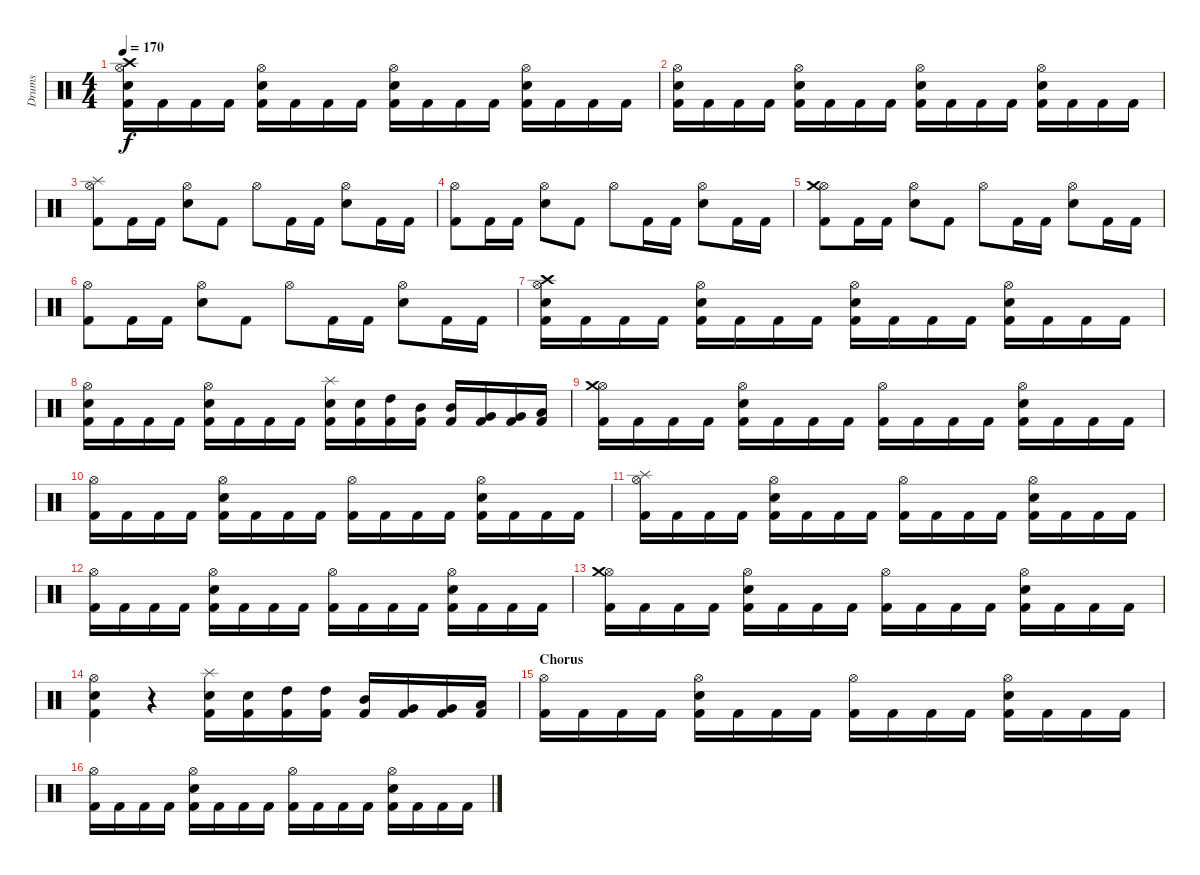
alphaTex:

\track ("Drums" "Drums") {instrument percussion}
\staff {score}
\articulation defaults
\ts (4 4)
\tempo 170
\clef neutral
\ks c
("Kick (hit) 2" "Snare (hit) 2" "Hi-Hat (open)" "Crash high (hit)").16{dy f} "Kick (hit) 2".16 "Kick (hit) 2".16 "Kick (hit) 2".16 ("Kick (hit) 2" "Snare (hit) 2" "Hi-Hat (open)").16 "Kick (hit) 2".16 "Kick (hit) 2".16 "Kick (hit) 2".16 ("Kick (hit) 2" "Snare (hit) 2" "Hi-Hat (open)").16 "Kick (hit) 2".16 "Kick (hit) 2".16 "Kick (hit) 2".16 ("Kick (hit) 2" "Snare (hit) 2" "Hi-Hat (open)").16 "Kick (hit) 2".16 "Kick (hit) 2".16 "Kick (hit) 2".16 |
("Kick (hit) 2" "Snare (hit) 2" "Hi-Hat (open)").16 "Kick (hit) 2".16 "Kick (hit) 2".16 "Kick (hit) 2".16 ("Kick (hit) 2" "Snare (hit) 2" "Hi-Hat (open)").16 "Kick (hit) 2".16 "Kick (hit) 2".16 "Kick (hit) 2".16 ("Kick (hit) 2" "Snare (hit) 2" "Hi-Hat (open)").16 "Kick (hit) 2".16 "Kick (hit) 2".16 "Kick (hit) 2".16 ("Kick (hit) 2" "Snare (hit) 2" "Hi-Hat (open)").16 "Kick (hit) 2".16 "Kick (hit) 2".16 "Kick (hit) 2".16 |
("Kick (hit) 2" "Hi-Hat (open)" "Splash (hit)").8 "Kick (hit) 2".16 "Kick (hit) 2".16 ("Snare (hit) 2" "Hi-Hat (open)").8 "Kick (hit) 2".8 "Hi-Hat (open)".8 "Kick (hit) 2".16 "Kick (hit) 2".16 ("Snare (hit) 2" "Hi-Hat (open)").8 "Kick (hit) 2".16 "Kick (hit) 2".16 |
("Kick (hit) 2" "Hi-Hat (open)").8 "Kick (hit) 2".16 "Kick (hit) 2".16 ("Snare (hit) 2" "Hi-Hat (open)").8 "Kick (hit) 2".8 "Hi-Hat (open)".8 "Kick (hit) 2".16 "Kick (hit) 2".16 ("Snare (hit) 2" "Hi-Hat (open)").8 "Kick (hit) 2".16 "Kick (hit) 2".16 |
("Kick (hit) 2" "Hi-Hat (open)" "Crash medium (hit)").8 "Kick (hit) 2".16 "Kick (hit) 2".16 ("Snare (hit) 2" "Hi-Hat (open)").8 "Kick (hit) 2".8 "Hi-Hat (open)".8 "Kick (hit) 2".16 "Kick (hit) 2".16 ("Snare (hit) 2" "Hi-Hat (open)").8 "Kick (hit) 2".16 "Kick (hit) 2".16 |
("Kick (hit) 2" "Hi-Hat (open)").8 "Kick (hit) 2".16 "Kick (hit) 2".16 ("Snare (hit) 2" "Hi-Hat (open)").8 "Kick (hit) 2".8 "Hi-Hat (open)".8 "Kick (hit) 2".16 "Kick (hit) 2".16 ("Snare (hit) 2" "Hi-Hat (open)").8 "Kick (hit) 2".16 "Kick (hit) 2".16 |
("Kick (hit) 2" "Snare (hit) 2" "Hi-Hat (open)" "Crash high (hit)").16 "Kick (hit) 2".16 "Kick (hit) 2".16 "Kick (hit) 2".16 ("Kick (hit) 2" "Snare (hit) 2" "Hi-Hat (open)").16 "Kick (hit) 2".16 "Kick (hit) 2".16 "Kick (hit) 2".16 ("Kick (hit) 2" "Snare (hit) 2" "Hi-Hat (open)").16 "Kick (hit) 2".16 "Kick (hit) 2".16 "Kick (hit) 2".16 ("Kick (hit) 2" "Snare (hit) 2" "Hi-Hat (open)").16 "Kick (hit) 2".16 "Kick (hit) 2".16 "Kick (hit) 2".16 |
("Kick (hit) 2" "Snare (hit) 2" "Hi-Hat (open)").16 "Kick (hit) 2".16 "Kick (hit) 2".16 "Kick (hit) 2".16 ("Kick (hit) 2" "Snare (hit) 2" "Hi-Hat (open)").16 "Kick (hit) 2".16 "Kick (hit) 2".16 "Kick (hit) 2".16 ("Kick (hit) 2" "Snare (hit) 2" "Splash (hit)").16 ("Kick (hit) 2" "Snare (hit) 2").16 ("Kick (hit) 2" "High Tom (hit)").16 ("Kick (hit) 2" "Mid Tom (hit)").16 ("Kick (hit) 2" "Mid Tom (hit)").16 ("Kick (hit) 2" "Very Low Tom (hit)").16 ("Kick (hit) 2" "Very Low Tom (hit)").16 ("Kick (hit) 2" "Low Floor Tom (hit)").16 |
\section ("" "")
("Kick (hit) 2" "Hi-Hat (open)" "Crash medium (hit)").16 "Kick (hit) 2".16 "Kick (hit) 2".16 "Kick (hit) 2".16 ("Kick (hit) 2" "Snare (hit) 2" "Hi-Hat (open)").16 "Kick (hit) 2".16 "Kick (hit) 2".16 "Kick (hit) 2".16 ("Kick (hit) 2" "Hi-Hat (open)").16 "Kick (hit) 2".16 "Kick (hit) 2".16 "Kick (hit) 2".16 ("Kick (hit) 2" "Snare (hit) 2" "Hi-Hat (open)").16 "Kick (hit) 2".16 "Kick (hit) 2".16 "Kick (hit) 2".16 |
("Kick (hit) 2" "Hi-Hat (open)").16 "Kick (hit) 2".16 "Kick (hit) 2".16 "Kick (hit) 2".16 ("Kick (hit) 2" "Snare (hit) 2" "Hi-Hat (open)").16 "Kick (hit) 2".16 "Kick (hit) 2".16 "Kick (hit) 2".16 ("Kick (hit) 2" "Hi-Hat (open)").16 "Kick (hit) 2".16 "Kick (hit) 2".16 "Kick (hit) 2".16 ("Kick (hit) 2" "Snare (hit) 2" "Hi-Hat (open)").16 "Kick (hit) 2".16 "Kick (hit) 2".16 "Kick (hit) 2".16 |
("Kick (hit) 2" "Hi-Hat (open)" "Splash (hit)").16 "Kick (hit) 2".16 "Kick (hit) 2".16 "Kick (hit) 2".16 ("Kick (hit) 2" "Snare (hit) 2" "Hi-Hat (open)").16 "Kick (hit) 2".16 "Kick (hit) 2".16 "Kick (hit) 2".16 ("Kick (hit) 2" "Hi-Hat (open)").16 "Kick (hit) 2".16 "Kick (hit) 2".16 "Kick (hit) 2".16 ("Kick (hit) 2" "Snare (hit) 2" "Hi-Hat (open)").16 "Kick (hit) 2".16 "Kick (hit) 2".16 "Kick (hit) 2".16 |
("Kick (hit) 2" "Hi-Hat (open)").16 "Kick (hit) 2".16 "Kick (hit) 2".16 "Kick (hit) 2".16 ("Kick (hit) 2" "Snare (hit) 2" "Hi-Hat (open)").16 "Kick (hit) 2".16 "Kick (hit) 2".16 "Kick (hit) 2".16 ("Kick (hit) 2" "Hi-Hat (open)").16 "Kick (hit) 2".16 "Kick (hit) 2".16 "Kick (hit) 2".16 ("Kick (hit) 2" "Snare (hit) 2" "Hi-Hat (open)").16 "Kick (hit) 2".16 "Kick (hit) 2".16 "Kick (hit) 2".16 |
("Kick (hit) 2" "Hi-Hat (open)" "Crash medium (hit)").16 "Kick (hit) 2".16 "Kick (hit) 2".16 "Kick (hit) 2".16 ("Kick (hit) 2" "Snare (hit) 2" "Hi-Hat (open)").16 "Kick (hit) 2".16 "Kick (hit) 2".16 "Kick (hit) 2".16 ("Kick (hit) 2" "Hi-Hat (open)").16 "Kick (hit) 2".16 "Kick (hit) 2".16 "Kick (hit) 2".16 ("Kick (hit) 2" "Snare (hit) 2" "Hi-Hat (open)").16 "Kick (hit) 2".16 "Kick (hit) 2".16 "Kick (hit) 2".16 |
("Kick (hit) 2" "Snare (hit) 2" "Hi-Hat (open)").4 r.4 ("Kick (hit) 2" "Snare (hit) 2" "Splash (hit)").16 ("Kick (hit) 2" "Snare (hit) 2").16 ("Kick (hit) 2" "High Tom (hit)").16 ("Kick (hit) 2" "High Tom (hit)").16 ("Kick (hit) 2" "Mid Tom (hit)").16 ("Kick (hit) 2" "Very Low Tom (hit)").16 ("Kick (hit) 2" "Very Low Tom (hit)").16 ("Kick (hit) 2" "Low Floor Tom (hit)").16 |
\section ("" "Chorus")
("Kick (hit) 2" "Hi-Hat (open)").16 "Kick (hit) 2".16 "Kick (hit) 2".16 "Kick (hit) 2".16 ("Kick (hit) 2" "Snare (hit) 2" "Hi-Hat (open)").16 "Kick (hit) 2".16 "Kick (hit) 2".16 "Kick (hit) 2".16 ("Kick (hit) 2" "Hi-Hat (open)").16 "Kick (hit) 2".16 "Kick (hit) 2".16 "Kick (hit) 2".16 ("Kick (hit) 2" "Snare (hit) 2" "Hi-Hat (open)").16 "Kick (hit) 2".16 "Kick (hit) 2".16 "Kick (hit) 2".16 |
("Kick (hit) 2" "Hi-Hat (open)").16 "Kick (hit) 2".16 "Kick (hit) 2".16 "Kick (hit) 2".16 ("Kick (hit) 2" "Snare (hit) 2" "Hi-Hat (open)").16 "Kick (hit) 2".16 "Kick (hit) 2".16 "Kick (hit) 2".16 ("Kick (hit) 2" "Hi-Hat (open)").16 "Kick (hit) 2".16 "Kick (hit) 2".16 "Kick (hit) 2".16 ("Kick (hit) 2" "Snare (hit) 2" "Hi-Hat (open)").16 "Kick (hit) 2".16 "Kick (hit) 2".16 "Kick (hit) 2".16
